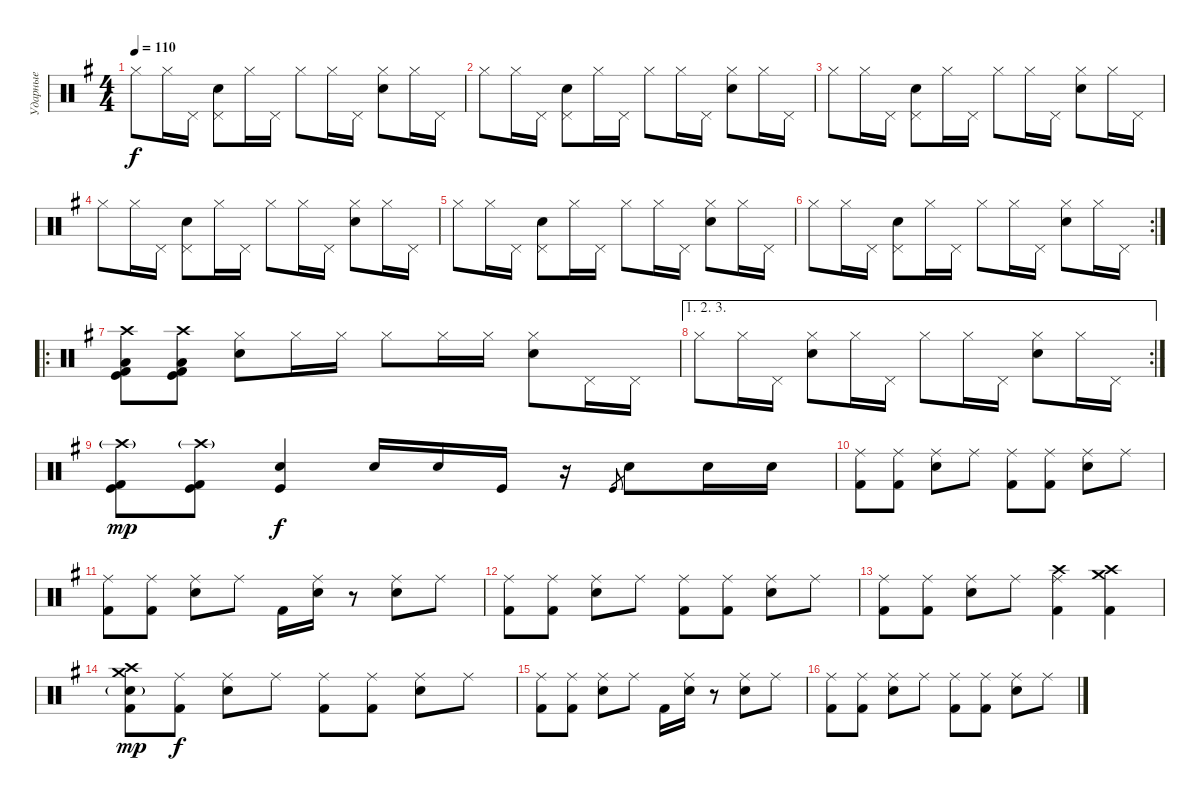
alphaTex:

\track ("Ударные" "Ударные") {instrument percussion}
\staff {score}
\articulation defaults
\ts (4 4)
\tempo 110
\clef neutral
\ks eminor "Hi-Hat (closed)".8{dy f} "Hi-Hat (closed)".16 "Pedal Hi-Hat (hit)".16
("Pedal Hi-Hat (hit)" "Electric Snare (hit)").8 "Hi-Hat (closed)".16 "Pedal Hi-Hat (hit)".16 "Hi-Hat (closed)".8 "Hi-Hat (closed)".16 "Pedal Hi-Hat (hit)".16 ("Hi-Hat (closed)" "Electric Snare (hit)").8 "Hi-Hat (closed)".16 "Pedal Hi-Hat (hit)".16 |
"Hi-Hat (closed)".8 "Hi-Hat (closed)".16 "Pedal Hi-Hat (hit)".16 ("Pedal Hi-Hat (hit)" "Electric Snare (hit)").8 "Hi-Hat (closed)".16 "Pedal Hi-Hat (hit)".16 "Hi-Hat (closed)".8 "Hi-Hat (closed)".16 "Pedal Hi-Hat (hit)".16 ("Hi-Hat (closed)" "Electric Snare (hit)").8 "Hi-Hat (closed)".16 "Pedal Hi-Hat (hit)".16 |
"Hi-Hat (closed)".8 "Hi-Hat (closed)".16 "Pedal Hi-Hat (hit)".16 ("Pedal Hi-Hat (hit)" "Electric Snare (hit)").8 "Hi-Hat (closed)".16 "Pedal Hi-Hat (hit)".16 "Hi-Hat (closed)".8 "Hi-Hat (closed)".16 "Pedal Hi-Hat (hit)".16 ("Hi-Hat (closed)" "Electric Snare (hit)").8 "Hi-Hat (closed)".16 "Pedal Hi-Hat (hit)".16 |
"Hi-Hat (closed)".8 "Hi-Hat (closed)".16 "Pedal Hi-Hat (hit)".16 ("Pedal Hi-Hat (hit)" "Electric Snare (hit)").8 "Hi-Hat (closed)".16 "Pedal Hi-Hat (hit)".16 "Hi-Hat (closed)".8 "Hi-Hat (closed)".16 "Pedal Hi-Hat (hit)".16 ("Hi-Hat (closed)" "Electric Snare (hit)").8 "Hi-Hat (closed)".16 "Pedal Hi-Hat (hit)".16 |
"Hi-Hat (closed)".8 "Hi-Hat (closed)".16 "Pedal Hi-Hat (hit)".16 ("Pedal Hi-Hat (hit)" "Electric Snare (hit)").8 "Hi-Hat (closed)".16 "Pedal Hi-Hat (hit)".16 "Hi-Hat (closed)".8 "Hi-Hat (closed)".16 "Pedal Hi-Hat (hit)".16 ("Hi-Hat (closed)" "Electric Snare (hit)").8 "Hi-Hat (closed)".16 "Pedal Hi-Hat (hit)".16 |
\rc 2 "Hi-Hat (closed)".8 "Hi-Hat (closed)".16 "Pedal Hi-Hat (hit)".16
("Pedal Hi-Hat (hit)" "Electric Snare (hit)").8 "Hi-Hat (closed)".16 "Pedal Hi-Hat (hit)".16 "Hi-Hat (closed)".8 "Hi-Hat (closed)".16 "Pedal Hi-Hat (hit)".16 ("Hi-Hat (closed)" "Electric Snare (hit)").8 "Hi-Hat (closed)".16 "Pedal Hi-Hat (hit)".16 |
\ro
("Crash high (hit)" "Kick (hit) 2" "Low Floor Tom (hit)" "Kick (hit)").8 ("Crash high (hit)" "Kick (hit) 2" "Low Floor Tom (hit)" "Kick (hit)").8 ("Hi-Hat (closed)" "Electric Snare (hit)").8 "Hi-Hat (closed)".16 "Hi-Hat (closed)".16 "Hi-Hat (closed)".8 "Hi-Hat (closed)".16 "Hi-Hat (closed)".16 ("Hi-Hat (closed)" "Electric Snare (hit)").8 "Pedal Hi-Hat (hit)".16 "Pedal Hi-Hat (hit)".16 |
\ae (1 2 3)
\rc 2 "Hi-Hat (closed)".8 "Hi-Hat (closed)".16 "Pedal Hi-Hat (hit)".16
("Hi-Hat (closed)" "Electric Snare (hit)").8 "Hi-Hat (closed)".16 "Pedal Hi-Hat (hit)".16 "Hi-Hat (closed)".8 "Hi-Hat (closed)".16 "Pedal Hi-Hat (hit)".16 ("Hi-Hat (closed)" "Electric Snare (hit)").8 "Hi-Hat (closed)".16 "Pedal Hi-Hat (hit)".16 |
("Crash high (hit)"{g} "Kick (hit)" "Kick (hit) 2").8{dy mp} ("Crash high (hit)"{g} "Kick (hit)" "Kick (hit) 2").8 ("Kick (hit)" "Electric Snare (hit)").4{dy f} "Electric Snare (hit)".16 "Electric Snare (hit)".16 "Kick (hit)".16 r.16 "Kick (hit)".8{gr} "Electric Snare (hit)".8 "Electric Snare (hit)".16 "Electric Snare (hit)".16 |
("Ride (middle)" "Kick (hit) 2").8 ("Ride (middle)" "Kick (hit) 2").8 ("Ride (middle)" "Electric Snare (hit)").8 "Ride (middle)".8 ("Ride (middle)" "Kick (hit) 2").8 ("Ride (middle)" "Kick (hit) 2").8 ("Ride (middle)" "Electric Snare (hit)").8 "Ride (middle)".8 |
("Ride (middle)" "Kick (hit) 2").8 ("Ride (middle)" "Kick (hit) 2").8 ("Ride (middle)" "Electric Snare (hit)").8 "Ride (middle)".8 "Kick (hit) 2".16 ("Ride (middle)" "Electric Snare (hit)").16 r.8 ("Ride (middle)" "Electric Snare (hit)").8 "Ride (middle)".8 |
("Ride (middle)" "Kick (hit) 2").8 ("Ride (middle)" "Kick (hit) 2").8 ("Ride (middle)" "Electric Snare (hit)").8 "Ride (middle)".8 ("Ride (middle)" "Kick (hit) 2").8 ("Ride (middle)" "Kick (hit) 2").8 ("Ride (middle)" "Electric Snare (hit)").8 "Ride (middle)".8 |
("Ride (middle)" "Kick (hit) 2").8 ("Ride (middle)" "Kick (hit) 2").8 ("Ride (middle)" "Electric Snare (hit)").8 "Ride (middle)".8 ("Ride (middle)" "Crash high (hit)" "Kick (hit) 2").4 ("Crash medium (hit)" "Crash high (hit)" "Kick (hit) 2").4 |
("Crash high (hit)" "Crash medium (hit)" "Electric Snare (hit)"{g} "Kick (hit) 2").8{dy mp} ("Ride (middle)" "Kick (hit) 2").8{dy f} ("Ride (middle)" "Electric Snare (hit)").8 "Ride (middle)".8 ("Ride (middle)" "Kick (hit) 2").8 ("Ride (middle)" "Kick (hit) 2").8 ("Ride (middle)" "Electric Snare (hit)").8 "Ride (middle)".8 |
("Ride (middle)" "Kick (hit) 2").8 ("Ride (middle)" "Kick (hit) 2").8 ("Ride (middle)" "Electric Snare (hit)").8 "Ride (middle)".8 "Kick (hit) 2".16 ("Ride (middle)" "Electric Snare (hit)").16 r.8 ("Ride (middle)" "Electric Snare (hit)").8 "Ride (middle)".8 |
("Ride (middle)" "Kick (hit) 2").8 ("Ride (middle)" "Kick (hit) 2").8 ("Ride (middle)" "Electric Snare (hit)").8 "Ride (middle)".8 ("Ride (middle)" "Kick (hit) 2").8 ("Ride (middle)" "Kick (hit) 2").8 ("Ride (middle)" "Electric Snare (hit)").8 "Ride (middle)".8
